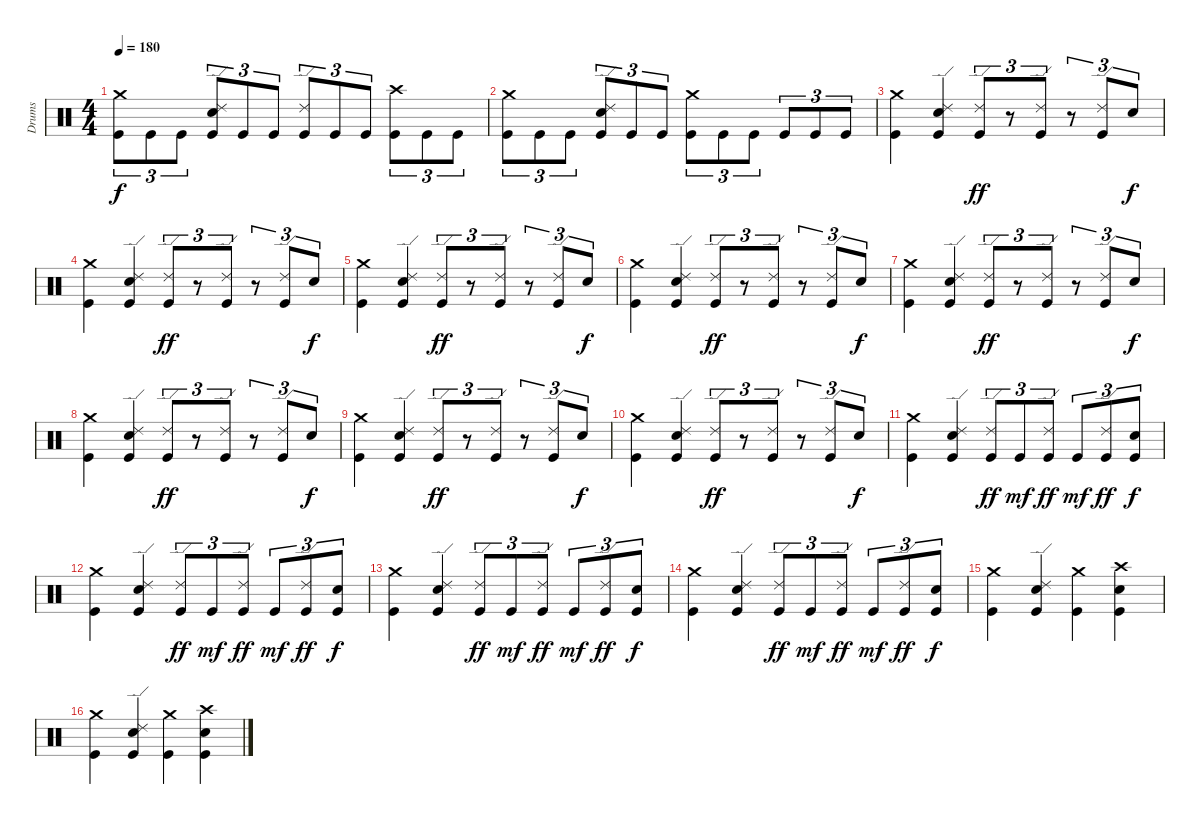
\track ("Drums" "Drums") {instrument percussion}
\staff {score}
\articulation defaults
\ts (4 4)
\tempo 180
\clef neutral
\ks c
("Crash medium (hit)" "Kick (hit)").8{tu (3 2) dy f} "Kick (hit)".8{tu (3 2)} "Kick (hit)".8{tu (3 2)} ("Ride (edge) 2" "Snare (hit) 2" "Kick (hit)").8{tu (3 2)} "Kick (hit)".8{tu (3 2)} "Kick (hit)".8{tu (3 2)} ("Ride (edge) 2" "Kick (hit)").8{tu (3 2)} "Kick (hit)".8{tu (3 2)} "Kick (hit)".8{tu (3 2)} ("Crash high (hit)" "Kick (hit)").8{tu (3 2)} "Kick (hit)".8{tu (3 2)} "Kick (hit)".8{tu (3 2)} |
("Crash medium (hit)" "Kick (hit)").8{tu (3 2)} "Kick (hit)".8{tu (3 2)} "Kick (hit)".8{tu (3 2)} ("Ride (edge) 2" "Snare (hit) 2" "Kick (hit)").8{tu (3 2)} "Kick (hit)".8{tu (3 2)} "Kick (hit)".8{tu (3 2)} ("Crash medium (hit)" "Kick (hit)").8{tu (3 2)} "Kick (hit)".8{tu (3 2)} "Kick (hit)".8{tu (3 2)} "Kick (hit)".8{tu (3 2)} "Kick (hit)".8{tu (3 2)} "Kick (hit)".8{tu (3 2)} |
("Crash medium (hit)" "Kick (hit)").4 ("Ride (edge) 2" "Snare (hit) 2" "Kick (hit)").4 ("Ride (edge) 2" "Kick (hit)").8{tu (3 2) dy ff} r.8{tu (3 2)} ("Ride (edge) 2" "Kick (hit)").8{tu (3 2)} r.8{tu (3 2)} ("Ride (edge) 2" "Kick (hit)").8{tu (3 2)} "Snare (hit) 2".8{tu (3 2) dy f} |
("Crash medium (hit)" "Kick (hit)").4 ("Ride (edge) 2" "Snare (hit) 2" "Kick (hit)").4 ("Ride (edge) 2" "Kick (hit)").8{tu (3 2) dy ff} r.8{tu (3 2)} ("Ride (edge) 2" "Kick (hit)").8{tu (3 2)} r.8{tu (3 2)} ("Ride (edge) 2" "Kick (hit)").8{tu (3 2)} "Snare (hit) 2".8{tu (3 2) dy f} |
("Crash medium (hit)" "Kick (hit)").4 ("Ride (edge) 2" "Snare (hit) 2" "Kick (hit)").4 ("Ride (edge) 2" "Kick (hit)").8{tu (3 2) dy ff} r.8{tu (3 2)} ("Ride (edge) 2" "Kick (hit)").8{tu (3 2)} r.8{tu (3 2)} ("Ride (edge) 2" "Kick (hit)").8{tu (3 2)} "Snare (hit) 2".8{tu (3 2) dy f} |
("Crash medium (hit)" "Kick (hit)").4 ("Ride (edge) 2" "Snare (hit) 2" "Kick (hit)").4 ("Ride (edge) 2" "Kick (hit)").8{tu (3 2) dy ff} r.8{tu (3 2)} ("Ride (edge) 2" "Kick (hit)").8{tu (3 2)} r.8{tu (3 2)} ("Ride (edge) 2" "Kick (hit)").8{tu (3 2)} "Snare (hit) 2".8{tu (3 2) dy f} |
("Crash medium (hit)" "Kick (hit)").4 ("Ride (edge) 2" "Snare (hit) 2" "Kick (hit)").4 ("Ride (edge) 2" "Kick (hit)").8{tu (3 2) dy ff} r.8{tu (3 2)} ("Ride (edge) 2" "Kick (hit)").8{tu (3 2)} r.8{tu (3 2)} ("Ride (edge) 2" "Kick (hit)").8{tu (3 2)} "Snare (hit) 2".8{tu (3 2) dy f} |
("Crash medium (hit)" "Kick (hit)").4 ("Ride (edge) 2" "Snare (hit) 2" "Kick (hit)").4 ("Ride (edge) 2" "Kick (hit)").8{tu (3 2) dy ff} r.8{tu (3 2)} ("Ride (edge) 2" "Kick (hit)").8{tu (3 2)} r.8{tu (3 2)} ("Ride (edge) 2" "Kick (hit)").8{tu (3 2)} "Snare (hit) 2".8{tu (3 2) dy f} |
("Crash medium (hit)" "Kick (hit)").4 ("Ride (edge) 2" "Snare (hit) 2" "Kick (hit)").4 ("Ride (edge) 2" "Kick (hit)").8{tu (3 2) dy ff} r.8{tu (3 2)} ("Ride (edge) 2" "Kick (hit)").8{tu (3 2)} r.8{tu (3 2)} ("Ride (edge) 2" "Kick (hit)").8{tu (3 2)} "Snare (hit) 2".8{tu (3 2) dy f} |
("Crash medium (hit)" "Kick (hit)").4 ("Ride (edge) 2" "Snare (hit) 2" "Kick (hit)").4 ("Ride (edge) 2" "Kick (hit)").8{tu (3 2) dy ff} r.8{tu (3 2)} ("Ride (edge) 2" "Kick (hit)").8{tu (3 2)} r.8{tu (3 2)} ("Ride (edge) 2" "Kick (hit)").8{tu (3 2)} "Snare (hit) 2".8{tu (3 2) dy f} |
("Crash medium (hit)" "Kick (hit)").4 ("Ride (edge) 2" "Snare (hit) 2" "Kick (hit)").4 ("Ride (edge) 2" "Kick (hit)").8{tu (3 2) dy ff} "Kick (hit)".8{tu (3 2) dy mf} ("Ride (edge) 2" "Kick (hit)").8{tu (3 2) dy ff} "Kick (hit)".8{tu (3 2) dy mf} ("Ride (edge) 2" "Kick (hit)").8{tu (3 2) dy ff} ("Snare (hit) 2" "Kick (hit)").8{tu (3 2) dy f} |
("Crash medium (hit)" "Kick (hit)").4 ("Ride (edge) 2" "Snare (hit) 2" "Kick (hit)").4 ("Ride (edge) 2" "Kick (hit)").8{tu (3 2) dy ff} "Kick (hit)".8{tu (3 2) dy mf} ("Ride (edge) 2" "Kick (hit)").8{tu (3 2) dy ff} "Kick (hit)".8{tu (3 2) dy mf} ("Ride (edge) 2" "Kick (hit)").8{tu (3 2) dy ff} ("Snare (hit) 2" "Kick (hit)").8{tu (3 2) dy f} |
("Crash medium (hit)" "Kick (hit)").4 ("Ride (edge) 2" "Snare (hit) 2" "Kick (hit)").4 ("Ride (edge) 2" "Kick (hit)").8{tu (3 2) dy ff} "Kick (hit)".8{tu (3 2) dy mf} ("Ride (edge) 2" "Kick (hit)").8{tu (3 2) dy ff} "Kick (hit)".8{tu (3 2) dy mf} ("Ride (edge) 2" "Kick (hit)").8{tu (3 2) dy ff} ("Snare (hit) 2" "Kick (hit)").8{tu (3 2) dy f} |
("Crash medium (hit)" "Kick (hit)").4 ("Ride (edge) 2" "Snare (hit) 2" "Kick (hit)").4 ("Ride (edge) 2" "Kick (hit)").8{tu (3 2) dy ff} "Kick (hit)".8{tu (3 2) dy mf} ("Ride (edge) 2" "Kick (hit)").8{tu (3 2) dy ff} "Kick (hit)".8{tu (3 2) dy mf} ("Ride (edge) 2" "Kick (hit)").8{tu (3 2) dy ff} ("Snare (hit) 2" "Kick (hit)").8{tu (3 2) dy f} |
("Crash medium (hit)" "Kick (hit)").4 ("Ride (edge) 2" "Snare (hit) 2" "Kick (hit)").4 ("Crash medium (hit)" "Kick (hit)").4 ("Crash high (hit)" "Snare (hit) 2" "Kick (hit)").4 |
("Crash medium (hit)" "Kick (hit)").4 ("Ride (edge) 2" "Snare (hit) 2" "Kick (hit)").4 ("Crash medium (hit)" "Kick (hit)").4 ("Crash high (hit)" "Snare (hit) 2" "Kick (hit)").4
